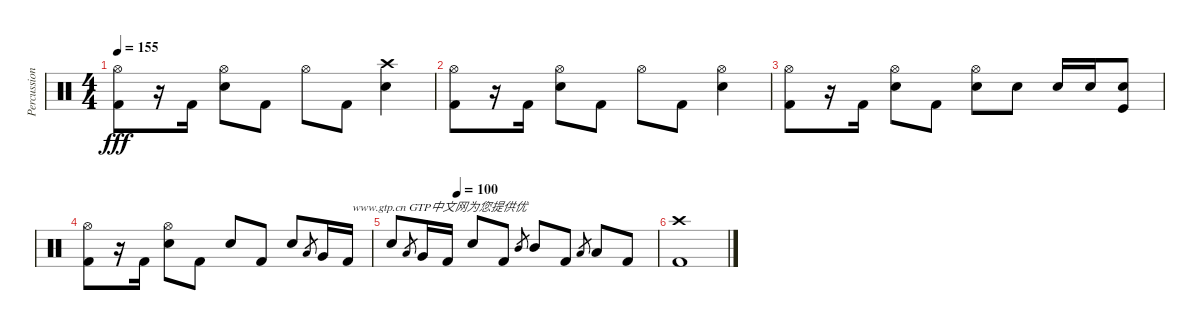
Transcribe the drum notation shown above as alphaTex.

\track ("Percussion" "Percussion") {instrument percussion}
\staff {score}
\articulation defaults
\ts (4 4)
\tempo 155
\clef neutral
\ks c
("Hi-Hat (open)" "Kick (hit) 2").8{dy fff} r.16 "Kick (hit) 2".16 ("Hi-Hat (open)" "Electric Snare (hit)").8 "Kick (hit) 2".8 "Hi-Hat (open)".8 "Kick (hit) 2".8 ("Crash high (hit)" "Electric Snare (hit)").4 |
("Hi-Hat (open)" "Kick (hit) 2").8 r.16 "Kick (hit) 2".16 ("Hi-Hat (open)" "Electric Snare (hit)").8 "Kick (hit) 2".8 "Hi-Hat (open)".8 "Kick (hit) 2".8 ("Hi-Hat (open)" "Electric Snare (hit)").4 |
("Hi-Hat (open)" "Kick (hit) 2").8 r.16 "Kick (hit) 2".16 ("Hi-Hat (open)" "Electric Snare (hit)").8 "Kick (hit) 2".8 ("Hi-Hat (open)" "Electric Snare (hit)").8 "Electric Snare (hit)".8 "Electric Snare (hit)".16 "Electric Snare (hit)".16 ("Electric Snare (hit)" "Kick (hit)").8 |
("Hi-Hat (open)" "Kick (hit) 2").8 r.16 "Kick (hit) 2".16 ("Hi-Hat (open)" "Electric Snare (hit)").8 "Kick (hit) 2".8 "Electric Snare (hit)".8 "Kick (hit) 2".8 "Electric Snare (hit)".8{txt "                    www.gtp.cn GTP中文网为您提供优"} "Low Tom (hit)".8{gr} "Very Low Tom (hit)".16 "Kick (hit) 2".16 |
\tempo (100 0.25)
"Electric Snare (hit)".8 "Low Tom (hit)".8{gr} "Very Low Tom (hit)".16 "Kick (hit) 2".16 "Electric Snare (hit)".8 "Kick (hit) 2".8 "Mid Tom (hit)".8{gr} "Mid Tom (hit)".8 "Kick (hit) 2".8 "Low Tom (hit)".8{gr} "Low Tom (hit)".8 "Kick (hit) 2".8 |
("Crash high (hit)" "Kick (hit) 2").1
